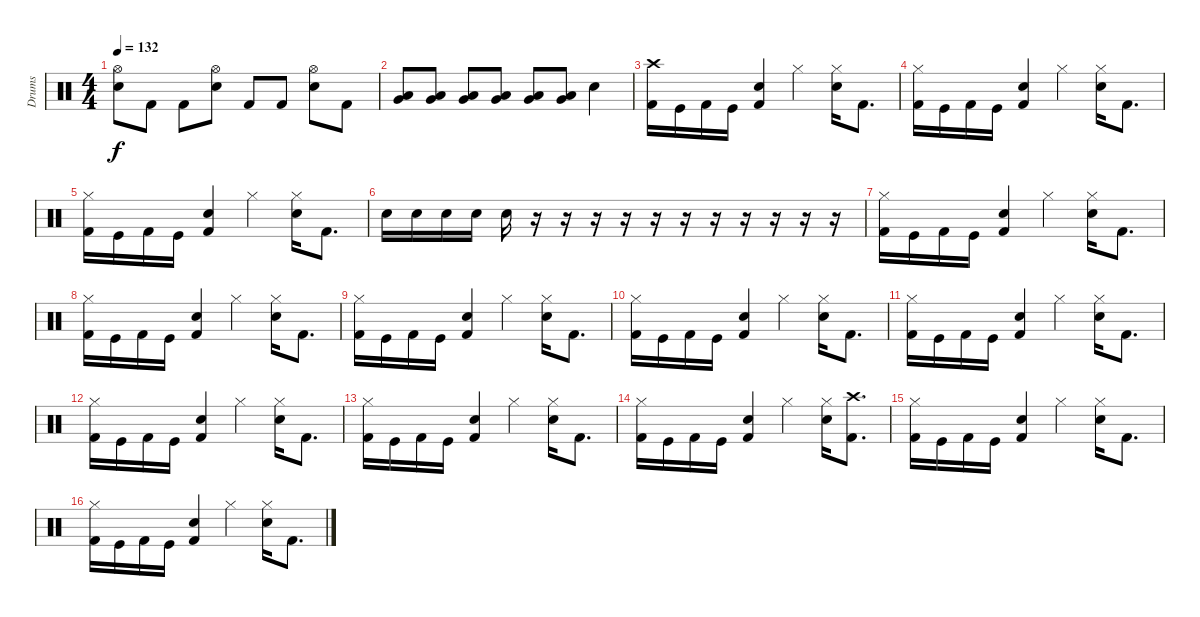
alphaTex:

\track ("Drums" "Drums") {instrument percussion}
\staff {score}
\articulation defaults
\ts (4 4)
\tempo 132
\clef neutral
\ks c
("Snare (hit) 2" "Hi-Hat (open)").8{dy f} "Kick (hit) 2".8 "Kick (hit) 2".8 ("Snare (hit) 2" "Hi-Hat (open)").8 "Kick (hit) 2".8 "Kick (hit) 2".8 ("Snare (hit) 2" "Hi-Hat (open)").8 "Kick (hit) 2".8 |
("Low Floor Tom (hit)" "Very Low Tom (hit)").8 ("Low Floor Tom (hit)" "Very Low Tom (hit)").8 ("Low Floor Tom (hit)" "Very Low Tom (hit)").8 ("Low Floor Tom (hit)" "Very Low Tom (hit)").8 ("Low Floor Tom (hit)" "Very Low Tom (hit)").8 ("Low Floor Tom (hit)" "Very Low Tom (hit)").8 "Snare (hit) 2".4 |
("Kick (hit) 2" "Crash high (hit)").16 "Kick (hit)".16 "Kick (hit) 2".16 "Kick (hit)".16 ("Kick (hit) 2" "Snare (hit) 2").4 "Hi-Hat (closed)".4 ("Hi-Hat (closed)" "Snare (hit) 2").16 "Kick (hit) 2".8{d} |
("Kick (hit) 2" "Hi-Hat (closed)").16 "Kick (hit)".16 "Kick (hit) 2".16 "Kick (hit)".16 ("Kick (hit) 2" "Snare (hit) 2").4 "Hi-Hat (closed)".4 ("Hi-Hat (closed)" "Snare (hit) 2").16 "Kick (hit) 2".8{d} |
("Kick (hit) 2" "Hi-Hat (closed)").16 "Kick (hit)".16 "Kick (hit) 2".16 "Kick (hit)".16 ("Kick (hit) 2" "Snare (hit) 2").4 "Hi-Hat (closed)".4 ("Hi-Hat (closed)" "Snare (hit) 2").16 "Kick (hit) 2".8{d} |
"Snare (hit) 2".16 "Snare (hit) 2".16 "Snare (hit) 2".16 "Snare (hit) 2".16 "Snare (hit) 2".16 r.16 r.16 r.16 r.16 r.16 r.16 r.16 r.16 r.16 r.16 r.16 |
("Kick (hit) 2" "Hi-Hat (closed)").16 "Kick (hit)".16 "Kick (hit) 2".16 "Kick (hit)".16 ("Kick (hit) 2" "Snare (hit) 2").4 "Hi-Hat (closed)".4 ("Hi-Hat (closed)" "Snare (hit) 2").16 "Kick (hit) 2".8{d} |
("Kick (hit) 2" "Hi-Hat (closed)").16 "Kick (hit)".16 "Kick (hit) 2".16 "Kick (hit)".16 ("Kick (hit) 2" "Snare (hit) 2").4 "Hi-Hat (closed)".4 ("Hi-Hat (closed)" "Snare (hit) 2").16 "Kick (hit) 2".8{d} |
("Kick (hit) 2" "Hi-Hat (closed)").16 "Kick (hit)".16 "Kick (hit) 2".16 "Kick (hit)".16 ("Kick (hit) 2" "Snare (hit) 2").4 "Hi-Hat (closed)".4 ("Hi-Hat (closed)" "Snare (hit) 2").16 "Kick (hit) 2".8{d} |
("Kick (hit) 2" "Hi-Hat (closed)").16 "Kick (hit)".16 "Kick (hit) 2".16 "Kick (hit)".16 ("Kick (hit) 2" "Snare (hit) 2").4 "Hi-Hat (closed)".4 ("Hi-Hat (closed)" "Snare (hit) 2").16 "Kick (hit) 2".8{d} |
("Kick (hit) 2" "Hi-Hat (closed)").16 "Kick (hit)".16 "Kick (hit) 2".16 "Kick (hit)".16 ("Kick (hit) 2" "Snare (hit) 2").4 "Hi-Hat (closed)".4 ("Hi-Hat (closed)" "Snare (hit) 2").16 "Kick (hit) 2".8{d} |
("Kick (hit) 2" "Hi-Hat (closed)").16 "Kick (hit)".16 "Kick (hit) 2".16 "Kick (hit)".16 ("Kick (hit) 2" "Snare (hit) 2").4 "Hi-Hat (closed)".4 ("Hi-Hat (closed)" "Snare (hit) 2").16 "Kick (hit) 2".8{d} |
("Kick (hit) 2" "Hi-Hat (closed)").16 "Kick (hit)".16 "Kick (hit) 2".16 "Kick (hit)".16 ("Kick (hit) 2" "Snare (hit) 2").4 "Hi-Hat (closed)".4 ("Hi-Hat (closed)" "Snare (hit) 2").16 "Kick (hit) 2".8{d} |
("Kick (hit) 2" "Hi-Hat (closed)").16 "Kick (hit)".16 "Kick (hit) 2".16 "Kick (hit)".16 ("Kick (hit) 2" "Snare (hit) 2").4 "Hi-Hat (closed)".4 ("Hi-Hat (closed)" "Snare (hit) 2").16 ("Kick (hit) 2" "Crash high (hit)").8{d} |
("Kick (hit) 2" "Hi-Hat (closed)").16 "Kick (hit)".16 "Kick (hit) 2".16 "Kick (hit)".16 ("Kick (hit) 2" "Snare (hit) 2").4 "Hi-Hat (closed)".4 ("Hi-Hat (closed)" "Snare (hit) 2").16 "Kick (hit) 2".8{d} |
("Kick (hit) 2" "Hi-Hat (closed)").16 "Kick (hit)".16 "Kick (hit) 2".16 "Kick (hit)".16 ("Kick (hit) 2" "Snare (hit) 2").4 "Hi-Hat (closed)".4 ("Hi-Hat (closed)" "Snare (hit) 2").16 "Kick (hit) 2".8{d}
